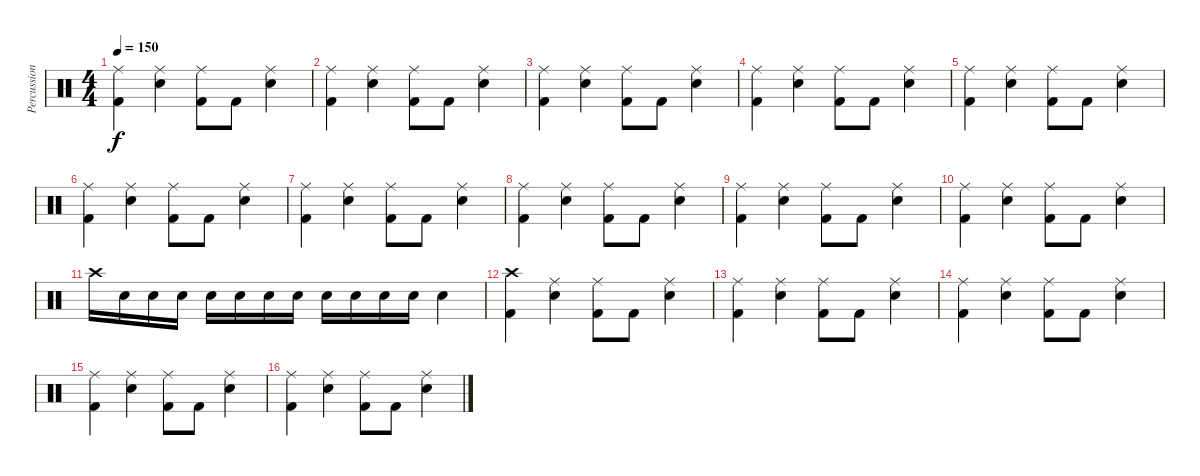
\track ("Percussions" "Percussion") {instrument percussion}
\staff {score}
\articulation defaults
\ts (4 4)
\tempo 150
\clef neutral
\ks c
("Ride (middle)" "Kick (hit) 2").4{dy f} ("Ride (middle)" "Electric Snare (hit)").4 ("Ride (middle)" "Kick (hit) 2").8 "Kick (hit) 2".8 ("Ride (middle)" "Electric Snare (hit)").4 |
("Ride (middle)" "Kick (hit) 2").4 ("Ride (middle)" "Electric Snare (hit)").4 ("Ride (middle)" "Kick (hit) 2").8 "Kick (hit) 2".8 ("Ride (middle)" "Electric Snare (hit)").4 |
("Ride (middle)" "Kick (hit) 2").4 ("Ride (middle)" "Electric Snare (hit)").4 ("Ride (middle)" "Kick (hit) 2").8 "Kick (hit) 2".8 ("Ride (middle)" "Electric Snare (hit)").4 |
("Ride (middle)" "Kick (hit) 2").4 ("Ride (middle)" "Electric Snare (hit)").4 ("Ride (middle)" "Kick (hit) 2").8 "Kick (hit) 2".8 ("Ride (middle)" "Electric Snare (hit)").4 |
("Ride (middle)" "Kick (hit) 2").4 ("Ride (middle)" "Electric Snare (hit)").4 ("Ride (middle)" "Kick (hit) 2").8 "Kick (hit) 2".8 ("Ride (middle)" "Electric Snare (hit)").4 |
("Ride (middle)" "Kick (hit) 2").4 ("Ride (middle)" "Electric Snare (hit)").4 ("Ride (middle)" "Kick (hit) 2").8 "Kick (hit) 2".8 ("Ride (middle)" "Electric Snare (hit)").4 |
("Ride (middle)" "Kick (hit) 2").4 ("Ride (middle)" "Electric Snare (hit)").4 ("Ride (middle)" "Kick (hit) 2").8 "Kick (hit) 2".8 ("Ride (middle)" "Electric Snare (hit)").4 |
("Ride (middle)" "Kick (hit) 2").4 ("Ride (middle)" "Electric Snare (hit)").4 ("Ride (middle)" "Kick (hit) 2").8 "Kick (hit) 2".8 ("Ride (middle)" "Electric Snare (hit)").4 |
("Ride (middle)" "Kick (hit) 2").4 ("Ride (middle)" "Electric Snare (hit)").4 ("Ride (middle)" "Kick (hit) 2").8 "Kick (hit) 2".8 ("Ride (middle)" "Electric Snare (hit)").4 |
("Ride (middle)" "Kick (hit) 2").4 ("Ride (middle)" "Electric Snare (hit)").4 ("Ride (middle)" "Kick (hit) 2").8 "Kick (hit) 2".8 ("Ride (middle)" "Electric Snare (hit)").4 |
"Crash high (hit)".16 "Electric Snare (hit)".16 "Electric Snare (hit)".16 "Electric Snare (hit)".16 "Electric Snare (hit)".16 "Electric Snare (hit)".16 "Electric Snare (hit)".16 "Electric Snare (hit)".16 "Electric Snare (hit)".16 "Electric Snare (hit)".16 "Electric Snare (hit)".16 "Electric Snare (hit)".16 "Electric Snare (hit)".4 |
("Crash high (hit)" "Kick (hit) 2").4 ("Ride (middle)" "Electric Snare (hit)").4 ("Ride (middle)" "Kick (hit) 2").8 "Kick (hit) 2".8 ("Ride (middle)" "Electric Snare (hit)").4 |
("Ride (middle)" "Kick (hit) 2").4 ("Ride (middle)" "Electric Snare (hit)").4 ("Ride (middle)" "Kick (hit) 2").8 "Kick (hit) 2".8 ("Ride (middle)" "Electric Snare (hit)").4 |
("Ride (middle)" "Kick (hit) 2").4 ("Ride (middle)" "Electric Snare (hit)").4 ("Ride (middle)" "Kick (hit) 2").8 "Kick (hit) 2".8 ("Ride (middle)" "Electric Snare (hit)").4 |
("Ride (middle)" "Kick (hit) 2").4 ("Ride (middle)" "Electric Snare (hit)").4 ("Ride (middle)" "Kick (hit) 2").8 "Kick (hit) 2".8 ("Ride (middle)" "Electric Snare (hit)").4 |
("Ride (middle)" "Kick (hit) 2").4 ("Ride (middle)" "Electric Snare (hit)").4 ("Ride (middle)" "Kick (hit) 2").8 "Kick (hit) 2".8 ("Ride (middle)" "Electric Snare (hit)").4
